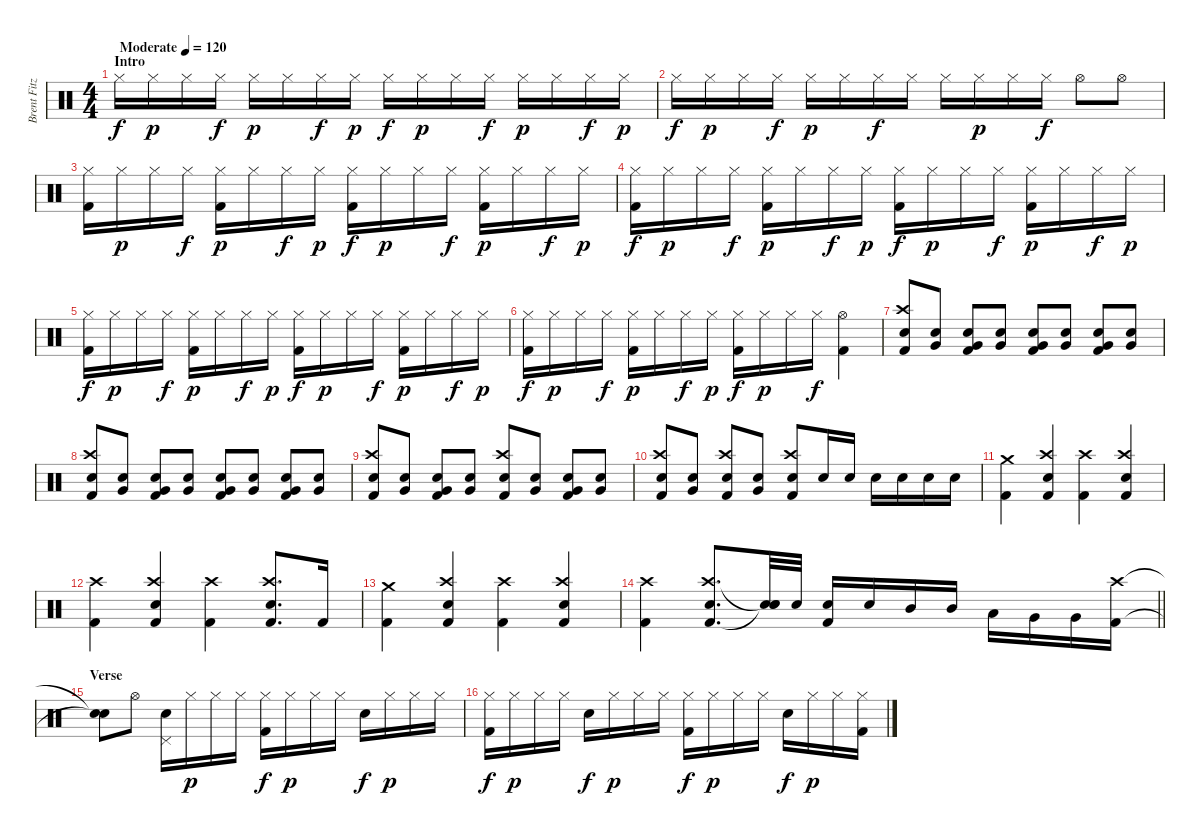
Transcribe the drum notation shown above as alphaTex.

\track ("Brent Fitz" "Brent Fitz") {instrument percussion}
\staff {score}
\articulation defaults
\ts (4 4)
\section ("" "Intro")
\tempo (120 "Moderate")
\clef neutral
\ks c "Hi-Hat (closed)".16{dy f} "Hi-Hat (closed)".16{dy p} "Hi-Hat (closed)".16 "Hi-Hat (closed)".16{dy f} "Hi-Hat (closed)".16{dy p} "Hi-Hat (closed)".16 "Hi-Hat (closed)".16{dy f} "Hi-Hat (closed)".16{dy p} "Hi-Hat (closed)".16{dy f} "Hi-Hat (closed)".16{dy p} "Hi-Hat (closed)".16 "Hi-Hat (closed)".16{dy f} "Hi-Hat (closed)".16{dy p} "Hi-Hat (closed)".16 "Hi-Hat (closed)".16{dy f} "Hi-Hat (closed)".16{dy p}
|
"Hi-Hat (closed)".16{dy f} "Hi-Hat (closed)".16{dy p} "Hi-Hat (closed)".16 "Hi-Hat (closed)".16{dy f} "Hi-Hat (closed)".16{dy p} "Hi-Hat (closed)".16 "Hi-Hat (closed)".16{dy f} "Hi-Hat (closed)".16 "Hi-Hat (closed)".16 "Hi-Hat (closed)".16{dy p} "Hi-Hat (closed)".16 "Hi-Hat (closed)".16{dy f} "Hi-Hat (open)".8 "Hi-Hat (open)".8 |
("Hi-Hat (closed)" "Kick (hit) 2").16 "Hi-Hat (closed)".16{dy p} "Hi-Hat (closed)".16 "Hi-Hat (closed)".16{dy f} ("Hi-Hat (closed)" "Kick (hit) 2").16{dy p} "Hi-Hat (closed)".16 "Hi-Hat (closed)".16{dy f} "Hi-Hat (closed)".16{dy p} ("Hi-Hat (closed)" "Kick (hit) 2").16{dy f} "Hi-Hat (closed)".16{dy p} "Hi-Hat (closed)".16 "Hi-Hat (closed)".16{dy f} ("Hi-Hat (closed)" "Kick (hit) 2").16{dy p} "Hi-Hat (closed)".16 "Hi-Hat (closed)".16{dy f} "Hi-Hat (closed)".16{dy p} |
("Hi-Hat (closed)" "Kick (hit) 2").16{dy f} "Hi-Hat (closed)".16{dy p} "Hi-Hat (closed)".16 "Hi-Hat (closed)".16{dy f} ("Hi-Hat (closed)" "Kick (hit) 2").16{dy p} "Hi-Hat (closed)".16 "Hi-Hat (closed)".16{dy f} "Hi-Hat (closed)".16{dy p} ("Hi-Hat (closed)" "Kick (hit) 2").16{dy f} "Hi-Hat (closed)".16{dy p} "Hi-Hat (closed)".16 "Hi-Hat (closed)".16{dy f} ("Hi-Hat (closed)" "Kick (hit) 2").16{dy p} "Hi-Hat (closed)".16 "Hi-Hat (closed)".16{dy f} "Hi-Hat (closed)".16{dy p} |
("Hi-Hat (closed)" "Kick (hit) 2").16{dy f} "Hi-Hat (closed)".16{dy p} "Hi-Hat (closed)".16 "Hi-Hat (closed)".16{dy f} ("Hi-Hat (closed)" "Kick (hit) 2").16{dy p} "Hi-Hat (closed)".16 "Hi-Hat (closed)".16{dy f} "Hi-Hat (closed)".16{dy p} ("Hi-Hat (closed)" "Kick (hit) 2").16{dy f} "Hi-Hat (closed)".16{dy p} "Hi-Hat (closed)".16 "Hi-Hat (closed)".16{dy f} ("Hi-Hat (closed)" "Kick (hit) 2").16{dy p} "Hi-Hat (closed)".16 "Hi-Hat (closed)".16{dy f} "Hi-Hat (closed)".16{dy p} |
("Hi-Hat (closed)" "Kick (hit) 2").16{dy f} "Hi-Hat (closed)".16{dy p} "Hi-Hat (closed)".16 "Hi-Hat (closed)".16{dy f} ("Hi-Hat (closed)" "Kick (hit) 2").16{dy p} "Hi-Hat (closed)".16 "Hi-Hat (closed)".16{dy f} "Hi-Hat (closed)".16{dy p} ("Hi-Hat (closed)" "Kick (hit) 2").16{dy f} "Hi-Hat (closed)".16{dy p} "Hi-Hat (closed)".16 "Hi-Hat (closed)".16{dy f} ("Hi-Hat (open)" "Kick (hit) 2").4 |
("Crash high (hit)" "Electric Snare (hit)" "Kick (hit) 2").8 ("Electric Snare (hit)" "Very Low Tom (hit)").8 ("Electric Snare (hit)" "Very Low Tom (hit)" "Kick (hit) 2").8 ("Electric Snare (hit)" "Very Low Tom (hit)").8 ("Electric Snare (hit)" "Very Low Tom (hit)" "Kick (hit) 2").8 ("Electric Snare (hit)" "Very Low Tom (hit)").8 ("Electric Snare (hit)" "Very Low Tom (hit)" "Kick (hit) 2").8 ("Electric Snare (hit)" "Very Low Tom (hit)").8 |
("Crash high (hit)" "Electric Snare (hit)" "Kick (hit) 2").8 ("Electric Snare (hit)" "Very Low Tom (hit)").8 ("Electric Snare (hit)" "Very Low Tom (hit)" "Kick (hit) 2").8 ("Electric Snare (hit)" "Very Low Tom (hit)").8 ("Electric Snare (hit)" "Very Low Tom (hit)" "Kick (hit) 2").8 ("Electric Snare (hit)" "Very Low Tom (hit)").8 ("Electric Snare (hit)" "Very Low Tom (hit)" "Kick (hit) 2").8 ("Electric Snare (hit)" "Very Low Tom (hit)").8 |
("Crash high (hit)" "Electric Snare (hit)" "Kick (hit) 2").8 ("Electric Snare (hit)" "Very Low Tom (hit)").8 ("Electric Snare (hit)" "Very Low Tom (hit)" "Kick (hit) 2").8 ("Electric Snare (hit)" "Very Low Tom (hit)").8 ("Crash high (hit)" "Electric Snare (hit)" "Kick (hit) 2").8 ("Electric Snare (hit)" "Very Low Tom (hit)").8 ("Electric Snare (hit)" "Very Low Tom (hit)" "Kick (hit) 2").8 ("Electric Snare (hit)" "Very Low Tom (hit)").8 |
("Crash high (hit)" "Electric Snare (hit)" "Kick (hit) 2").8 ("Electric Snare (hit)" "Very Low Tom (hit)").8 ("Crash high (hit)" "Electric Snare (hit)" "Kick (hit) 2").8 ("Electric Snare (hit)" "Very Low Tom (hit)").8 ("Crash high (hit)" "Electric Snare (hit)" "Kick (hit) 2").8 "Electric Snare (hit)".16 "Electric Snare (hit)".16 "Electric Snare (hit)".16 "Electric Snare (hit)".16 "Electric Snare (hit)".16 "Electric Snare (hit)".16 |
("Crash medium (hit)" "Kick (hit) 2").4 ("Crash high (hit)" "Electric Snare (hit)" "Kick (hit) 2").4 ("Crash high (hit)" "Kick (hit) 2").4 ("Crash high (hit)" "Electric Snare (hit)" "Kick (hit) 2").4 |
("Crash high (hit)" "Kick (hit) 2").4 ("Crash high (hit)" "Electric Snare (hit)" "Kick (hit) 2").4 ("Crash high (hit)" "Kick (hit) 2").4 ("Crash high (hit)" "Electric Snare (hit)" "Kick (hit) 2").8{d} "Kick (hit) 2".16 |
("Crash medium (hit)" "Kick (hit) 2").4 ("Crash high (hit)" "Electric Snare (hit)" "Kick (hit) 2").4 ("Crash high (hit)" "Kick (hit) 2").4 ("Crash high (hit)" "Electric Snare (hit)" "Kick (hit) 2").4 |
\barLineRight lightlight
("Crash high (hit)" "Kick (hit) 2").4 ("Crash high (hit)" "Electric Snare (hit)" "Kick (hit) 2").8{d} ("Snare (hit)"{t} "Electric Snare (hit)" "Snare (hit)"{t}).32 "Electric Snare (hit)".32 ("Electric Snare (hit)" "Kick (hit) 2").16 "Electric Snare (hit)".16 "Mid Tom (hit)".16 "Mid Tom (hit)".16 "Low Tom (hit)".16 "Very Low Tom (hit)".16 "Very Low Tom (hit)".16 ("Crash high (hit)" "Kick (hit) 2").16 |
\section ("" "Verse")
("Snare (hit)"{t} "Snare (hit)"{t}).8 "Hi-Hat (open)".8 ("Pedal Hi-Hat (hit)" "Electric Snare (hit)").16 "Hi-Hat (closed)".16{dy p} "Hi-Hat (closed)".16 "Hi-Hat (closed)".16 ("Hi-Hat (closed)" "Kick (hit) 2").16{dy f} "Hi-Hat (closed)".16{dy p} "Hi-Hat (closed)".16 "Hi-Hat (closed)".16 "Electric Snare (hit)".16{dy f} "Hi-Hat (closed)".16{dy p} "Hi-Hat (closed)".16 "Hi-Hat (closed)".16 |
("Hi-Hat (closed)" "Kick (hit) 2").16{dy f} "Hi-Hat (closed)".16{dy p} "Hi-Hat (closed)".16 "Hi-Hat (closed)".16 "Electric Snare (hit)".16{dy f} "Hi-Hat (closed)".16{dy p} "Hi-Hat (closed)".16 "Hi-Hat (closed)".16 ("Hi-Hat (closed)" "Kick (hit) 2").16{dy f} "Hi-Hat (closed)".16{dy p} "Hi-Hat (closed)".16 "Hi-Hat (closed)".16 "Electric Snare (hit)".16{dy f} "Hi-Hat (closed)".16{dy p} "Hi-Hat (closed)".16 ("Hi-Hat (closed)" "Kick (hit) 2").16
